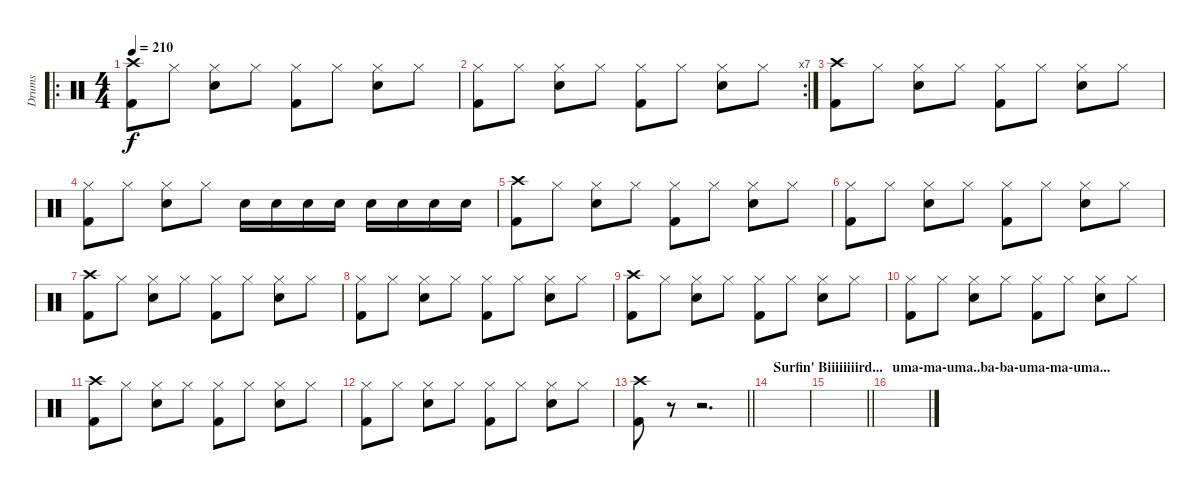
\track ("Drums" "Drums") {instrument percussion}
\staff {score}
\articulation defaults
\ro
\ts (4 4)
\tempo 210
\clef neutral
\ks c
("Crash high (hit)" "Kick (hit) 2").8{dy f} "Hi-Hat (closed)".8 ("Hi-Hat (closed)" "Snare (hit) 2").8 "Hi-Hat (closed)".8 ("Hi-Hat (closed)" "Kick (hit) 2").8 "Hi-Hat (closed)".8 ("Hi-Hat (closed)" "Snare (hit) 2").8 "Hi-Hat (closed)".8 |
\rc 7
("Hi-Hat (closed)" "Kick (hit) 2").8 "Hi-Hat (closed)".8 ("Hi-Hat (closed)" "Snare (hit) 2").8 "Hi-Hat (closed)".8 ("Hi-Hat (closed)" "Kick (hit) 2").8 "Hi-Hat (closed)".8 ("Hi-Hat (closed)" "Snare (hit) 2").8 "Hi-Hat (closed)".8 |
("Crash high (hit)" "Kick (hit) 2").8 "Hi-Hat (closed)".8 ("Hi-Hat (closed)" "Snare (hit) 2").8 "Hi-Hat (closed)".8 ("Hi-Hat (closed)" "Kick (hit) 2").8 "Hi-Hat (closed)".8 ("Hi-Hat (closed)" "Snare (hit) 2").8 "Hi-Hat (closed)".8 |
("Hi-Hat (closed)" "Kick (hit) 2").8 "Hi-Hat (closed)".8 ("Hi-Hat (closed)" "Snare (hit) 2").8 "Hi-Hat (closed)".8 "Snare (hit) 2".16 "Snare (hit) 2".16 "Snare (hit) 2".16 "Snare (hit) 2".16 "Snare (hit) 2".16 "Snare (hit) 2".16 "Snare (hit) 2".16 "Snare (hit) 2".16 |
("Crash high (hit)" "Kick (hit) 2").8 "Hi-Hat (closed)".8 ("Hi-Hat (closed)" "Snare (hit) 2").8 "Hi-Hat (closed)".8 ("Hi-Hat (closed)" "Kick (hit) 2").8 "Hi-Hat (closed)".8 ("Hi-Hat (closed)" "Snare (hit) 2").8 "Hi-Hat (closed)".8 |
("Hi-Hat (closed)" "Kick (hit) 2").8 "Hi-Hat (closed)".8 ("Hi-Hat (closed)" "Snare (hit) 2").8 "Hi-Hat (closed)".8 ("Hi-Hat (closed)" "Kick (hit) 2").8 "Hi-Hat (closed)".8 ("Hi-Hat (closed)" "Snare (hit) 2").8 "Hi-Hat (closed)".8 |
("Crash high (hit)" "Kick (hit) 2").8 "Hi-Hat (closed)".8 ("Hi-Hat (closed)" "Snare (hit) 2").8 "Hi-Hat (closed)".8 ("Hi-Hat (closed)" "Kick (hit) 2").8 "Hi-Hat (closed)".8 ("Hi-Hat (closed)" "Snare (hit) 2").8 "Hi-Hat (closed)".8 |
("Hi-Hat (closed)" "Kick (hit) 2").8 "Hi-Hat (closed)".8 ("Hi-Hat (closed)" "Snare (hit) 2").8 "Hi-Hat (closed)".8 ("Hi-Hat (closed)" "Kick (hit) 2").8 "Hi-Hat (closed)".8 ("Hi-Hat (closed)" "Snare (hit) 2").8 "Hi-Hat (closed)".8 |
("Crash high (hit)" "Kick (hit) 2").8 "Hi-Hat (closed)".8 ("Hi-Hat (closed)" "Snare (hit) 2").8 "Hi-Hat (closed)".8 ("Hi-Hat (closed)" "Kick (hit) 2").8 "Hi-Hat (closed)".8 ("Hi-Hat (closed)" "Snare (hit) 2").8 "Hi-Hat (closed)".8 |
("Hi-Hat (closed)" "Kick (hit) 2").8 "Hi-Hat (closed)".8 ("Hi-Hat (closed)" "Snare (hit) 2").8 "Hi-Hat (closed)".8 ("Hi-Hat (closed)" "Kick (hit) 2").8 "Hi-Hat (closed)".8 ("Hi-Hat (closed)" "Snare (hit) 2").8 "Hi-Hat (closed)".8 |
("Crash high (hit)" "Kick (hit) 2").8 "Hi-Hat (closed)".8 ("Hi-Hat (closed)" "Snare (hit) 2").8 "Hi-Hat (closed)".8 ("Hi-Hat (closed)" "Kick (hit) 2").8 "Hi-Hat (closed)".8 ("Hi-Hat (closed)" "Snare (hit) 2").8 "Hi-Hat (closed)".8 |
("Hi-Hat (closed)" "Kick (hit) 2").8 "Hi-Hat (closed)".8 ("Hi-Hat (closed)" "Snare (hit) 2").8 "Hi-Hat (closed)".8 ("Hi-Hat (closed)" "Kick (hit) 2").8 "Hi-Hat (closed)".8 ("Hi-Hat (closed)" "Snare (hit) 2").8 "Hi-Hat (closed)".8 |
\barLineRight lightlight
("Crash high (hit)" "Kick (hit) 2").8 r.8 r.2{d} |
\section ("" "Surfin' Biiiiiiiird...")
|
\barLineRight lightlight
|
\section ("" "uma-ma-uma..ba-ba-uma-ma-uma...")
